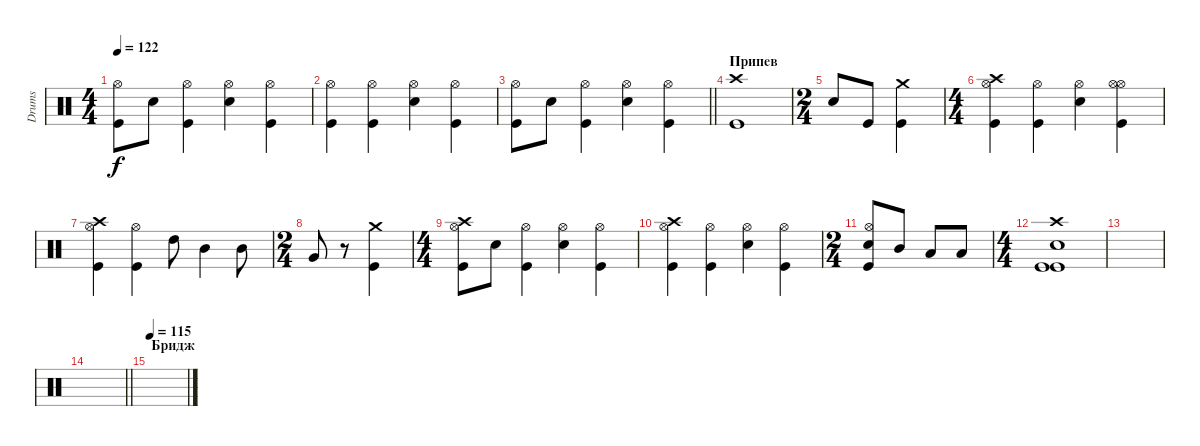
\track ("Drums" "Drums") {instrument percussion}
\staff {score}
\articulation defaults
\ts (4 4)
\tempo 122
\clef neutral
\ks c
("Kick (hit)" "Hi-Hat (open)").8{dy f} "Snare (hit) 2".8 ("Kick (hit)" "Hi-Hat (open)").4 ("Snare (hit) 2" "Hi-Hat (open)").4 ("Kick (hit)" "Hi-Hat (open)").4 |
("Kick (hit)" "Hi-Hat (open)").4 ("Kick (hit)" "Hi-Hat (open)").4 ("Snare (hit) 2" "Hi-Hat (open)").4 ("Kick (hit)" "Hi-Hat (open)").4 |
\barLineRight lightlight
("Kick (hit)" "Hi-Hat (open)").8 "Snare (hit) 2".8 ("Kick (hit)" "Hi-Hat (open)").4 ("Snare (hit) 2" "Hi-Hat (open)").4 ("Kick (hit)" "Hi-Hat (open)").4 |
\section ("" "Припев")
("Kick (hit)" "Crash high (hit)").1 |
\ts (2 4)
"Snare (hit) 2".8 "Kick (hit)".8 ("Kick (hit)" "Crash medium (hit)").4 |
\ts (4 4)
("Kick (hit)" "Hi-Hat (open)" "Crash high (hit)").4 ("Kick (hit)" "Hi-Hat (open)").4 ("Snare (hit) 2" "Hi-Hat (open)").4 ("Kick (hit)" "Hi-Hat (open)" "Hi-Hat (open)").4 |
("Kick (hit)" "Hi-Hat (open)" "Crash high (hit)").4 ("Kick (hit)" "Hi-Hat (open)").4 "High Tom (hit)".8 "Mid Tom (hit)".4 "Mid Tom (hit)".8 |
\ts (2 4)
"Very Low Tom (hit)".8 r.8 ("Kick (hit)" "Crash medium (hit)").4 |
\ts (4 4)
("Kick (hit)" "Hi-Hat (open)" "Crash high (hit)").8 "Snare (hit) 2".8 ("Kick (hit)" "Hi-Hat (open)").4 ("Snare (hit) 2" "Hi-Hat (open)").4 ("Kick (hit)" "Hi-Hat (open)").4 |
("Kick (hit)" "Hi-Hat (open)" "Crash high (hit)").4 ("Kick (hit)" "Hi-Hat (open)").4 ("Snare (hit) 2" "Hi-Hat (open)").4 ("Kick (hit)" "Hi-Hat (open)").4 |
\ts (2 4)
("Kick (hit)" "Snare (hit) 2" "Hi-Hat (open)").8 "Mid Tom (hit)".8 "Low Tom (hit)".8 "Low Tom (hit)".8 |
\ts (4 4)
("Kick (hit)" "Kick (hit)" "Snare (hit) 2" "Crash high (hit)").1 |
|
\barLineRight lightlight
|
\section ("" "Бридж")
\tempo 115
